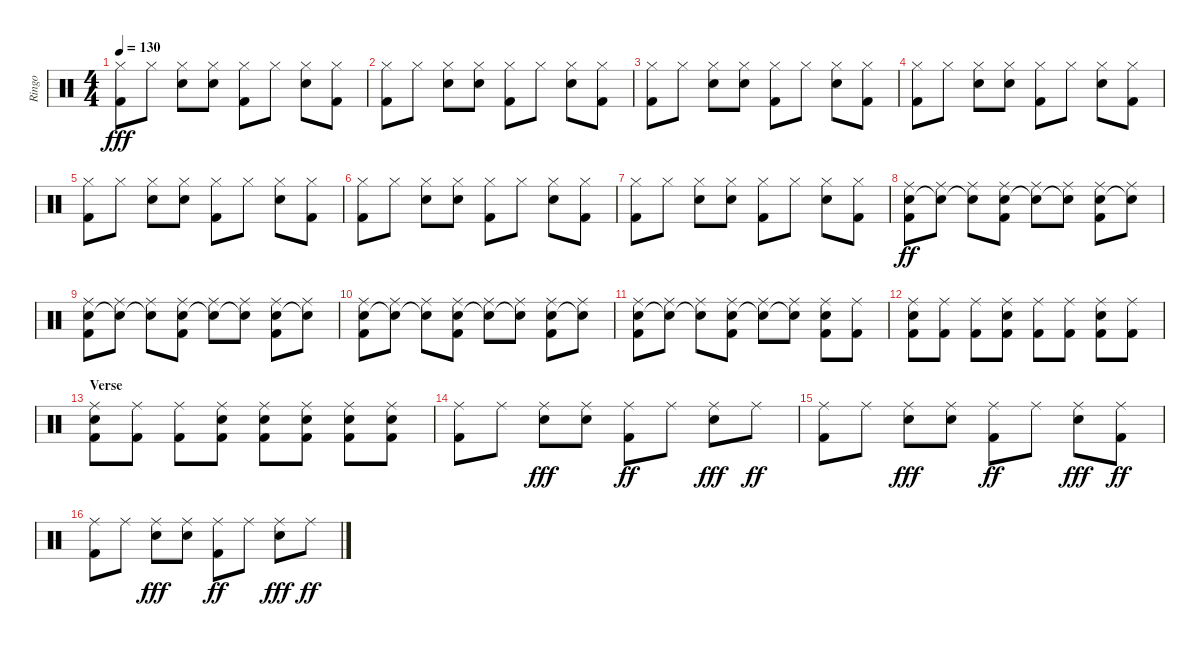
\track ("Ringo" "Ringo") {instrument percussion}
\staff {score}
\articulation defaults
\ts (4 4)
\tempo 130
\clef neutral
\ks c
("Hi-Hat (closed)" "Kick (hit) 2").8{dy fff} "Hi-Hat (closed)".8 ("Hi-Hat (closed)" "Electric Snare (hit)").8 ("Hi-Hat (closed)" "Electric Snare (hit)").8 ("Hi-Hat (closed)" "Kick (hit) 2").8 "Hi-Hat (closed)".8 ("Hi-Hat (closed)" "Electric Snare (hit)").8 ("Hi-Hat (closed)" "Kick (hit) 2").8 |
("Hi-Hat (closed)" "Kick (hit) 2").8 "Hi-Hat (closed)".8 ("Hi-Hat (closed)" "Electric Snare (hit)").8 ("Hi-Hat (closed)" "Electric Snare (hit)").8 ("Hi-Hat (closed)" "Kick (hit) 2").8 "Hi-Hat (closed)".8 ("Hi-Hat (closed)" "Electric Snare (hit)").8 ("Hi-Hat (closed)" "Kick (hit) 2").8 |
("Hi-Hat (closed)" "Kick (hit) 2").8 "Hi-Hat (closed)".8 ("Hi-Hat (closed)" "Electric Snare (hit)").8 ("Hi-Hat (closed)" "Electric Snare (hit)").8 ("Hi-Hat (closed)" "Kick (hit) 2").8 "Hi-Hat (closed)".8 ("Hi-Hat (closed)" "Electric Snare (hit)").8 ("Hi-Hat (closed)" "Kick (hit) 2").8 |
("Hi-Hat (closed)" "Kick (hit) 2").8 "Hi-Hat (closed)".8 ("Hi-Hat (closed)" "Electric Snare (hit)").8 ("Hi-Hat (closed)" "Electric Snare (hit)").8 ("Hi-Hat (closed)" "Kick (hit) 2").8 "Hi-Hat (closed)".8 ("Hi-Hat (closed)" "Electric Snare (hit)").8 ("Hi-Hat (closed)" "Kick (hit) 2").8 |
("Hi-Hat (closed)" "Kick (hit) 2").8 "Hi-Hat (closed)".8 ("Hi-Hat (closed)" "Electric Snare (hit)").8 ("Hi-Hat (closed)" "Electric Snare (hit)").8 ("Hi-Hat (closed)" "Kick (hit) 2").8 "Hi-Hat (closed)".8 ("Hi-Hat (closed)" "Electric Snare (hit)").8 ("Hi-Hat (closed)" "Kick (hit) 2").8 |
("Hi-Hat (closed)" "Kick (hit) 2").8 "Hi-Hat (closed)".8 ("Hi-Hat (closed)" "Electric Snare (hit)").8 ("Hi-Hat (closed)" "Electric Snare (hit)").8 ("Hi-Hat (closed)" "Kick (hit) 2").8 "Hi-Hat (closed)".8 ("Hi-Hat (closed)" "Electric Snare (hit)").8 ("Hi-Hat (closed)" "Kick (hit) 2").8 |
("Hi-Hat (closed)" "Kick (hit) 2").8 "Hi-Hat (closed)".8 ("Hi-Hat (closed)" "Electric Snare (hit)").8 ("Hi-Hat (closed)" "Electric Snare (hit)").8 ("Hi-Hat (closed)" "Kick (hit) 2").8 "Hi-Hat (closed)".8 ("Hi-Hat (closed)" "Electric Snare (hit)").8 ("Hi-Hat (closed)" "Kick (hit) 2").8 |
("Ride (middle)" "Electric Snare (hit)" "Kick (hit) 2").8{dy ff} ("Ride (middle)" "Snare (hit)"{t}).8 ("Ride (middle)" "Snare (hit)"{t}).8 ("Ride (middle)" "Electric Snare (hit)" "Kick (hit) 2").8 ("Ride (middle)" "Snare (hit)"{t}).8 ("Ride (middle)" "Snare (hit)"{t}).8 ("Ride (middle)" "Electric Snare (hit)" "Kick (hit) 2").8 ("Ride (middle)" "Snare (hit)"{t}).8 |
("Ride (middle)" "Electric Snare (hit)" "Kick (hit) 2").8 ("Ride (middle)" "Snare (hit)"{t}).8 ("Ride (middle)" "Snare (hit)"{t}).8 ("Ride (middle)" "Electric Snare (hit)" "Kick (hit) 2").8 ("Ride (middle)" "Snare (hit)"{t}).8 ("Ride (middle)" "Snare (hit)"{t}).8 ("Ride (middle)" "Electric Snare (hit)" "Kick (hit) 2").8 ("Ride (middle)" "Snare (hit)"{t}).8 |
("Ride (middle)" "Electric Snare (hit)" "Kick (hit) 2").8 ("Ride (middle)" "Snare (hit)"{t}).8 ("Ride (middle)" "Snare (hit)"{t}).8 ("Ride (middle)" "Electric Snare (hit)" "Kick (hit) 2").8 ("Ride (middle)" "Snare (hit)"{t}).8 ("Ride (middle)" "Snare (hit)"{t}).8 ("Ride (middle)" "Electric Snare (hit)" "Kick (hit) 2").8 ("Ride (middle)" "Snare (hit)"{t}).8 |
("Ride (middle)" "Electric Snare (hit)" "Kick (hit) 2").8 ("Ride (middle)" "Snare (hit)"{t}).8 ("Ride (middle)" "Snare (hit)"{t}).8 ("Ride (middle)" "Electric Snare (hit)" "Kick (hit) 2").8 ("Ride (middle)" "Snare (hit)"{t}).8 ("Ride (middle)" "Snare (hit)"{t}).8 ("Ride (middle)" "Electric Snare (hit)" "Kick (hit) 2").8 ("Ride (middle)" "Kick (hit) 2").8 |
("Ride (middle)" "Electric Snare (hit)" "Kick (hit) 2").8 ("Ride (middle)" "Kick (hit) 2").8 ("Ride (middle)" "Kick (hit) 2").8 ("Ride (middle)" "Electric Snare (hit)" "Kick (hit) 2").8 ("Ride (middle)" "Kick (hit) 2").8 ("Ride (middle)" "Kick (hit) 2").8 ("Ride (middle)" "Electric Snare (hit)" "Kick (hit) 2").8 ("Ride (middle)" "Kick (hit) 2").8 |
\section ("" "Verse")
("Ride (middle)" "Electric Snare (hit)" "Kick (hit) 2").8 ("Ride (middle)" "Kick (hit) 2").8 ("Ride (middle)" "Kick (hit) 2").8 ("Ride (middle)" "Electric Snare (hit)" "Kick (hit) 2").8 ("Ride (middle)" "Electric Snare (hit)" "Kick (hit) 2").8 ("Ride (middle)" "Electric Snare (hit)" "Kick (hit) 2").8 ("Ride (middle)" "Electric Snare (hit)" "Kick (hit) 2").8 ("Ride (middle)" "Electric Snare (hit)" "Kick (hit) 2").8 |
("Ride (middle)" "Kick (hit) 2").8 "Ride (middle)".8 ("Ride (middle)" "Electric Snare (hit)").8{dy fff} ("Ride (middle)" "Electric Snare (hit)").8 ("Ride (middle)" "Kick (hit) 2").8{dy ff} "Ride (middle)".8 ("Ride (middle)" "Electric Snare (hit)").8{dy fff} "Ride (middle)".8{dy ff} |
("Ride (middle)" "Kick (hit) 2").8 "Ride (middle)".8 ("Ride (middle)" "Electric Snare (hit)").8{dy fff} ("Ride (middle)" "Electric Snare (hit)").8 ("Ride (middle)" "Kick (hit) 2").8{dy ff} "Ride (middle)".8 ("Ride (middle)" "Electric Snare (hit)").8{dy fff} ("Ride (middle)" "Kick (hit) 2").8{dy ff} |
("Ride (middle)" "Kick (hit) 2").8 "Ride (middle)".8 ("Ride (middle)" "Electric Snare (hit)").8{dy fff} ("Ride (middle)" "Electric Snare (hit)").8 ("Ride (middle)" "Kick (hit) 2").8{dy ff} "Ride (middle)".8 ("Ride (middle)" "Electric Snare (hit)").8{dy fff} "Ride (middle)".8{dy ff}
